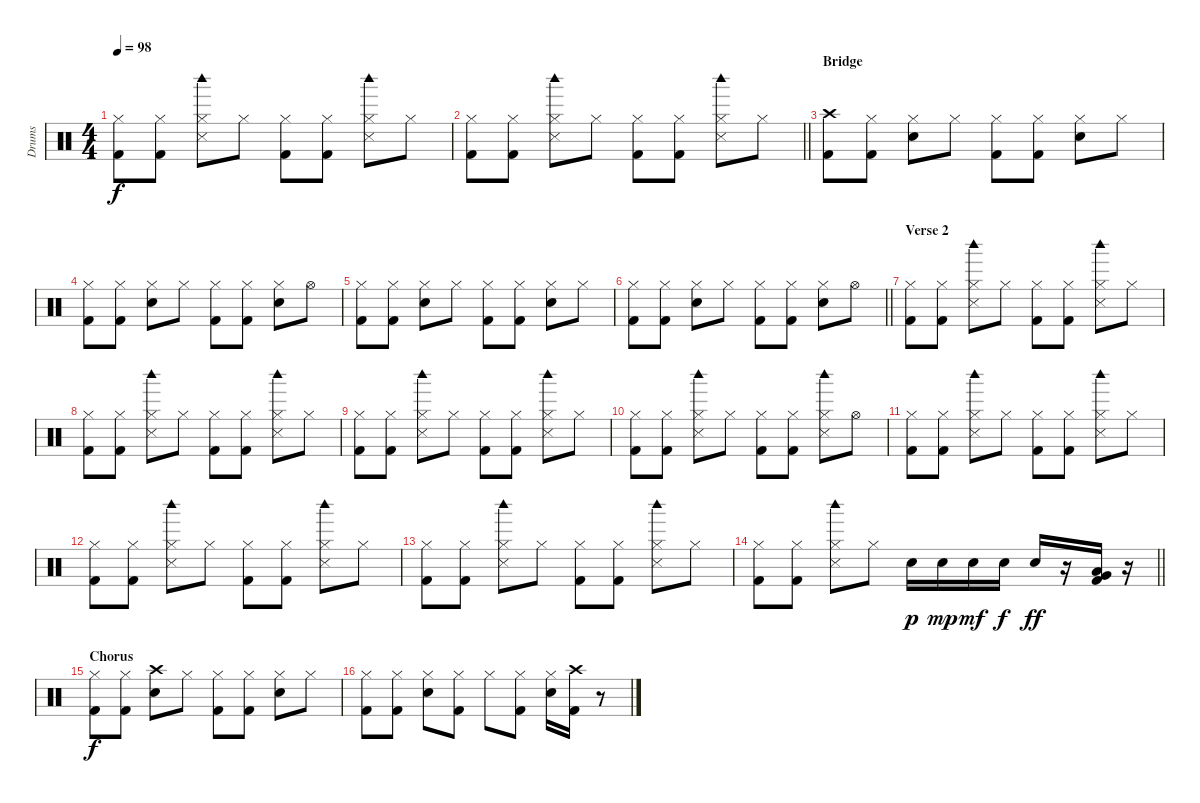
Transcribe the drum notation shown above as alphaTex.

\track ("Drums" "Drums") {instrument percussion}
\staff {score}
\articulation defaults
\ts (4 4)
\tempo 98
\clef neutral
\ks c
("Hi-Hat (closed)" "Kick (hit) 2").8{dy f} ("Hi-Hat (closed)" "Kick (hit) 2").8 ("Hi-Hat (closed)" "Metronome (hit)" "Woodblock high (hit)").8 "Hi-Hat (closed)".8 ("Hi-Hat (closed)" "Kick (hit) 2").8 ("Hi-Hat (closed)" "Kick (hit) 2").8 ("Hi-Hat (closed)" "Metronome (hit)" "Woodblock high (hit)").8 "Hi-Hat (closed)".8 |
\barLineRight lightlight
("Hi-Hat (closed)" "Kick (hit) 2").8 ("Hi-Hat (closed)" "Kick (hit) 2").8 ("Hi-Hat (closed)" "Metronome (hit)" "Woodblock high (hit)").8 "Hi-Hat (closed)".8 ("Hi-Hat (closed)" "Kick (hit) 2").8 ("Hi-Hat (closed)" "Kick (hit) 2").8 ("Hi-Hat (closed)" "Metronome (hit)" "Woodblock high (hit)").8 "Hi-Hat (closed)".8 |
\section ("" "Bridge")
("Crash high (hit)" "Kick (hit) 2").8 ("Hi-Hat (closed)" "Kick (hit) 2").8 ("Hi-Hat (closed)" "Snare (hit) 2").8 "Hi-Hat (closed)".8 ("Hi-Hat (closed)" "Kick (hit) 2").8 ("Hi-Hat (closed)" "Kick (hit) 2").8 ("Hi-Hat (closed)" "Snare (hit) 2").8 "Hi-Hat (closed)".8 |
("Hi-Hat (closed)" "Kick (hit) 2").8 ("Hi-Hat (closed)" "Kick (hit) 2").8 ("Hi-Hat (closed)" "Snare (hit) 2").8 "Hi-Hat (closed)".8 ("Hi-Hat (closed)" "Kick (hit) 2").8 ("Hi-Hat (closed)" "Kick (hit) 2").8 ("Hi-Hat (closed)" "Snare (hit) 2").8 "Hi-Hat (open)".8 |
("Hi-Hat (closed)" "Kick (hit) 2").8 ("Hi-Hat (closed)" "Kick (hit) 2").8 ("Hi-Hat (closed)" "Snare (hit) 2").8 "Hi-Hat (closed)".8 ("Hi-Hat (closed)" "Kick (hit) 2").8 ("Hi-Hat (closed)" "Kick (hit) 2").8 ("Hi-Hat (closed)" "Snare (hit) 2").8 "Hi-Hat (closed)".8 |
\barLineRight lightlight
("Hi-Hat (closed)" "Kick (hit) 2").8 ("Hi-Hat (closed)" "Kick (hit) 2").8 ("Hi-Hat (closed)" "Snare (hit) 2").8 "Hi-Hat (closed)".8 ("Hi-Hat (closed)" "Kick (hit) 2").8 ("Hi-Hat (closed)" "Kick (hit) 2").8 ("Hi-Hat (closed)" "Snare (hit) 2").8 "Hi-Hat (open)".8 |
\section ("" "Verse 2")
("Hi-Hat (closed)" "Kick (hit) 2").8 ("Hi-Hat (closed)" "Kick (hit) 2").8 ("Hi-Hat (closed)" "Metronome (hit)" "Woodblock high (hit)").8 "Hi-Hat (closed)".8 ("Hi-Hat (closed)" "Kick (hit) 2").8 ("Hi-Hat (closed)" "Kick (hit) 2").8 ("Hi-Hat (closed)" "Metronome (hit)" "Woodblock high (hit)").8 "Hi-Hat (closed)".8 |
("Hi-Hat (closed)" "Kick (hit) 2").8 ("Hi-Hat (closed)" "Kick (hit) 2").8 ("Hi-Hat (closed)" "Metronome (hit)" "Woodblock high (hit)").8 "Hi-Hat (closed)".8 ("Hi-Hat (closed)" "Kick (hit) 2").8 ("Hi-Hat (closed)" "Kick (hit) 2").8 ("Hi-Hat (closed)" "Metronome (hit)" "Woodblock high (hit)").8 "Hi-Hat (closed)".8 |
("Hi-Hat (closed)" "Kick (hit) 2").8 ("Hi-Hat (closed)" "Kick (hit) 2").8 ("Hi-Hat (closed)" "Metronome (hit)" "Woodblock high (hit)").8 "Hi-Hat (closed)".8 ("Hi-Hat (closed)" "Kick (hit) 2").8 ("Hi-Hat (closed)" "Kick (hit) 2").8 ("Hi-Hat (closed)" "Metronome (hit)" "Woodblock high (hit)").8 "Hi-Hat (closed)".8 |
("Hi-Hat (closed)" "Kick (hit) 2").8 ("Hi-Hat (closed)" "Kick (hit) 2").8 ("Hi-Hat (closed)" "Metronome (hit)" "Woodblock high (hit)").8 "Hi-Hat (closed)".8 ("Hi-Hat (closed)" "Kick (hit) 2").8 ("Hi-Hat (closed)" "Kick (hit) 2").8 ("Hi-Hat (closed)" "Metronome (hit)" "Woodblock high (hit)").8 "Hi-Hat (open)".8 |
("Hi-Hat (closed)" "Kick (hit) 2").8 ("Hi-Hat (closed)" "Kick (hit) 2").8 ("Hi-Hat (closed)" "Metronome (hit)" "Woodblock high (hit)").8 "Hi-Hat (closed)".8 ("Hi-Hat (closed)" "Kick (hit) 2").8 ("Hi-Hat (closed)" "Kick (hit) 2").8 ("Hi-Hat (closed)" "Metronome (hit)" "Woodblock high (hit)").8 "Hi-Hat (closed)".8 |
("Hi-Hat (closed)" "Kick (hit) 2").8 ("Hi-Hat (closed)" "Kick (hit) 2").8 ("Hi-Hat (closed)" "Metronome (hit)" "Woodblock high (hit)").8 "Hi-Hat (closed)".8 ("Hi-Hat (closed)" "Kick (hit) 2").8 ("Hi-Hat (closed)" "Kick (hit) 2").8 ("Hi-Hat (closed)" "Metronome (hit)" "Woodblock high (hit)").8 "Hi-Hat (closed)".8 |
("Hi-Hat (closed)" "Kick (hit) 2").8 ("Hi-Hat (closed)" "Kick (hit) 2").8 ("Hi-Hat (closed)" "Metronome (hit)" "Woodblock high (hit)").8 "Hi-Hat (closed)".8 ("Hi-Hat (closed)" "Kick (hit) 2").8 ("Hi-Hat (closed)" "Kick (hit) 2").8 ("Hi-Hat (closed)" "Metronome (hit)" "Woodblock high (hit)").8 "Hi-Hat (closed)".8 |
\barLineRight lightlight
("Hi-Hat (closed)" "Kick (hit) 2").8 ("Hi-Hat (closed)" "Kick (hit) 2").8 ("Hi-Hat (closed)" "Metronome (hit)" "Woodblock high (hit)").8 "Hi-Hat (closed)".8 "Snare (hit) 2".16{dy p} "Snare (hit) 2".16{dy mp} "Snare (hit) 2".16{dy mf} "Snare (hit) 2".16{dy f} "Snare (hit) 2".16{dy ff} r.16 ("Very Low Tom (hit)" "Low Floor Tom (hit)" "Kick (hit) 2").16 r.16 |
\section ("" "Chorus")
("Hi-Hat (closed)" "Kick (hit) 2").8{dy f} ("Hi-Hat (closed)" "Kick (hit) 2").8 ("Crash high (hit)" "Snare (hit) 2").8 "Hi-Hat (closed)".8 ("Hi-Hat (closed)" "Kick (hit) 2").8 ("Hi-Hat (closed)" "Kick (hit) 2").8 ("Hi-Hat (closed)" "Snare (hit) 2").8 "Hi-Hat (closed)".8 |
("Hi-Hat (closed)" "Kick (hit) 2").8 ("Hi-Hat (closed)" "Kick (hit) 2").8 ("Hi-Hat (closed)" "Snare (hit) 2").8 ("Hi-Hat (closed)" "Kick (hit) 2").8 "Hi-Hat (closed)".8 ("Hi-Hat (closed)" "Kick (hit) 2").8 ("Hi-Hat (closed)" "Snare (hit) 2").16 ("Crash high (hit)" "Kick (hit) 2").16 r.8
